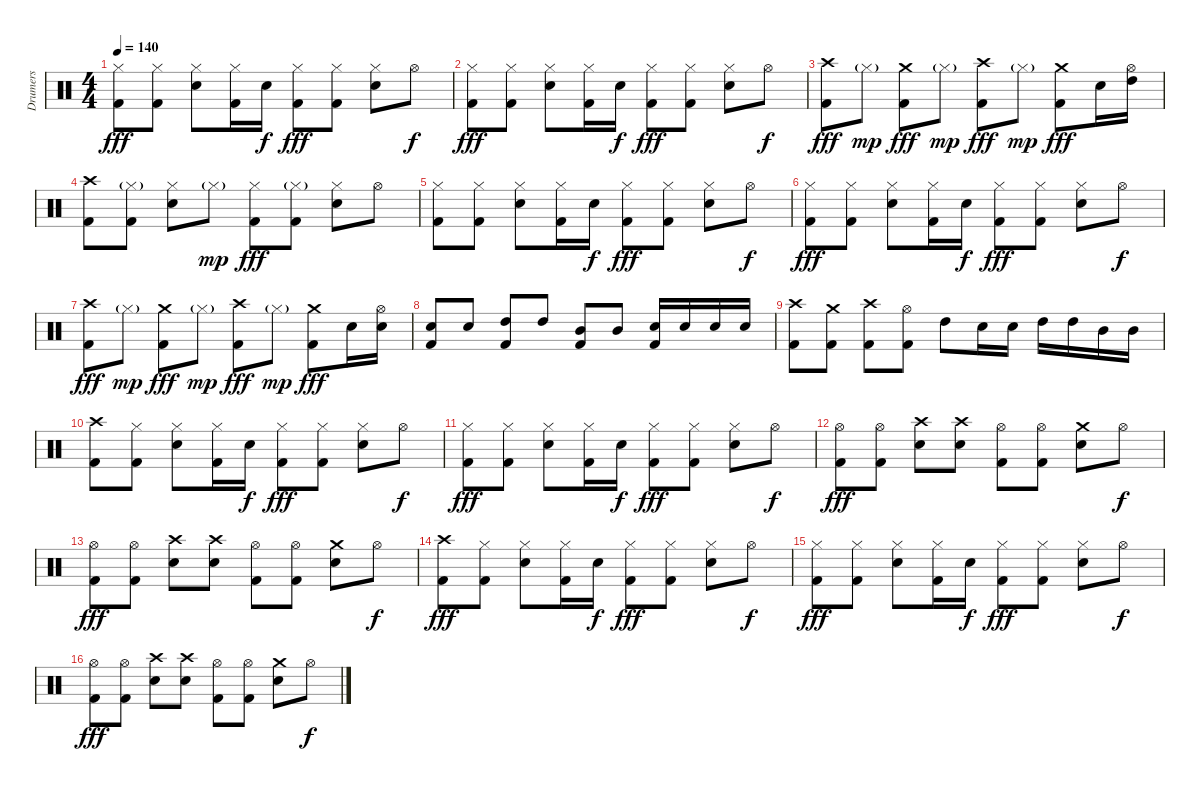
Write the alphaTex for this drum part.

\track ("Drumers" "Drumers") {instrument percussion}
\staff {score}
\articulation defaults
\ts (4 4)
\tempo 140
\clef neutral
\ks c
("Hi-Hat (closed)" "Kick (hit) 2").8{dy fff} ("Hi-Hat (closed)" "Kick (hit) 2").8 ("Hi-Hat (closed)" "Electric Snare (hit)").8 ("Hi-Hat (closed)" "Kick (hit) 2").16 "Electric Snare (hit)".16{dy f} ("Hi-Hat (closed)" "Kick (hit) 2").8{dy fff} ("Hi-Hat (closed)" "Kick (hit) 2").8 ("Hi-Hat (closed)" "Electric Snare (hit)").8 "Hi-Hat (open)".8{dy f} |
("Hi-Hat (closed)" "Kick (hit) 2").8{dy fff} ("Hi-Hat (closed)" "Kick (hit) 2").8 ("Hi-Hat (closed)" "Electric Snare (hit)").8 ("Hi-Hat (closed)" "Kick (hit) 2").16 "Electric Snare (hit)".16{dy f} ("Hi-Hat (closed)" "Kick (hit) 2").8{dy fff} ("Hi-Hat (closed)" "Kick (hit) 2").8 ("Hi-Hat (closed)" "Electric Snare (hit)").8 "Hi-Hat (open)".8{dy f} |
("Crash high (hit)" "Kick (hit) 2").8{dy fff} "Hi-Hat (closed)"{g}.8{dy mp} ("Crash medium (hit)" "Kick (hit) 2").8{dy fff} "Hi-Hat (closed)"{g}.8{dy mp} ("Crash high (hit)" "Kick (hit) 2").8{dy fff} "Hi-Hat (closed)"{g}.8{dy mp} ("Crash medium (hit)" "Kick (hit) 2").8{dy fff} "Electric Snare (hit)".16 ("Hi-Hat (open)" "High Tom (hit)").16 |
("Crash high (hit)" "Kick (hit) 2").8 ("Hi-Hat (closed)"{g} "Kick (hit) 2").8 ("Hi-Hat (closed)" "Electric Snare (hit)").8 "Hi-Hat (closed)"{g}.8{dy mp} ("Hi-Hat (closed)" "Kick (hit) 2").8{dy fff} ("Hi-Hat (closed)"{g} "Kick (hit) 2").8 ("Hi-Hat (closed)" "Electric Snare (hit)").8 "Hi-Hat (open)".8 |
("Hi-Hat (closed)" "Kick (hit) 2").8 ("Hi-Hat (closed)" "Kick (hit) 2").8 ("Hi-Hat (closed)" "Electric Snare (hit)").8 ("Hi-Hat (closed)" "Kick (hit) 2").16 "Electric Snare (hit)".16{dy f} ("Hi-Hat (closed)" "Kick (hit) 2").8{dy fff} ("Hi-Hat (closed)" "Kick (hit) 2").8 ("Hi-Hat (closed)" "Electric Snare (hit)").8 "Hi-Hat (open)".8{dy f} |
("Hi-Hat (closed)" "Kick (hit) 2").8{dy fff} ("Hi-Hat (closed)" "Kick (hit) 2").8 ("Hi-Hat (closed)" "Electric Snare (hit)").8 ("Hi-Hat (closed)" "Kick (hit) 2").16 "Electric Snare (hit)".16{dy f} ("Hi-Hat (closed)" "Kick (hit) 2").8{dy fff} ("Hi-Hat (closed)" "Kick (hit) 2").8 ("Hi-Hat (closed)" "Electric Snare (hit)").8 "Hi-Hat (open)".8{dy f} |
("Crash high (hit)" "Kick (hit) 2").8{dy fff} "Hi-Hat (closed)"{g}.8{dy mp} ("Crash medium (hit)" "Kick (hit) 2").8{dy fff} "Hi-Hat (closed)"{g}.8{dy mp} ("Crash high (hit)" "Kick (hit) 2").8{dy fff} "Hi-Hat (closed)"{g}.8{dy mp} ("Crash medium (hit)" "Kick (hit) 2").8{dy fff} "Electric Snare (hit)".16 ("Hi-Hat (open)" "Electric Snare (hit)").16 |
("Electric Snare (hit)" "Kick (hit) 2").8 "Electric Snare (hit)".8 ("High Tom (hit)" "Kick (hit) 2").8 "High Tom (hit)".8 ("Mid Tom (hit)" "Kick (hit) 2").8 "Mid Tom (hit)".8 ("Electric Snare (hit)" "Kick (hit) 2").16 "Electric Snare (hit)".16 "Electric Snare (hit)".16 "Electric Snare (hit)".16 |
("Crash high (hit)" "Kick (hit) 2").8 ("Crash medium (hit)" "Kick (hit) 2").8 ("Crash high (hit)" "Kick (hit) 2").8 ("Hi-Hat (open)" "Kick (hit) 2").8 "High Tom (hit)".8 "Electric Snare (hit)".16 "Electric Snare (hit)".16 "High Tom (hit)".16 "High Tom (hit)".16 "Mid Tom (hit)".16 "Mid Tom (hit)".16 |
("Crash high (hit)" "Kick (hit) 2").8 ("Hi-Hat (closed)" "Kick (hit) 2").8 ("Hi-Hat (closed)" "Electric Snare (hit)").8 ("Hi-Hat (closed)" "Kick (hit) 2").16 "Electric Snare (hit)".16{dy f} ("Hi-Hat (closed)" "Kick (hit) 2").8{dy fff} ("Hi-Hat (closed)" "Kick (hit) 2").8 ("Hi-Hat (closed)" "Electric Snare (hit)").8 "Hi-Hat (open)".8{dy f} |
("Hi-Hat (closed)" "Kick (hit) 2").8{dy fff} ("Hi-Hat (closed)" "Kick (hit) 2").8 ("Hi-Hat (closed)" "Electric Snare (hit)").8 ("Hi-Hat (closed)" "Kick (hit) 2").16 "Electric Snare (hit)".16{dy f} ("Hi-Hat (closed)" "Kick (hit) 2").8{dy fff} ("Hi-Hat (closed)" "Kick (hit) 2").8 ("Hi-Hat (closed)" "Electric Snare (hit)").8 "Hi-Hat (open)".8{dy f} |
("Hi-Hat (open)" "Kick (hit) 2").8{dy fff} ("Hi-Hat (open)" "Kick (hit) 2").8 ("Crash high (hit)" "Electric Snare (hit)").8 ("Crash high (hit)" "Electric Snare (hit)").8 ("Hi-Hat (open)" "Kick (hit) 2").8 ("Hi-Hat (open)" "Kick (hit) 2").8 ("Crash medium (hit)" "Electric Snare (hit)").8 "Hi-Hat (open)".8{dy f} |
("Hi-Hat (open)" "Kick (hit) 2").8{dy fff} ("Hi-Hat (open)" "Kick (hit) 2").8 ("Crash high (hit)" "Electric Snare (hit)").8 ("Crash high (hit)" "Electric Snare (hit)").8 ("Hi-Hat (open)" "Kick (hit) 2").8 ("Hi-Hat (open)" "Kick (hit) 2").8 ("Crash medium (hit)" "Electric Snare (hit)").8 "Hi-Hat (open)".8{dy f} |
("Crash high (hit)" "Kick (hit) 2").8{dy fff} ("Hi-Hat (closed)" "Kick (hit) 2").8 ("Hi-Hat (closed)" "Electric Snare (hit)").8 ("Hi-Hat (closed)" "Kick (hit) 2").16 "Electric Snare (hit)".16{dy f} ("Hi-Hat (closed)" "Kick (hit) 2").8{dy fff} ("Hi-Hat (closed)" "Kick (hit) 2").8 ("Hi-Hat (closed)" "Electric Snare (hit)").8 "Hi-Hat (open)".8{dy f} |
("Hi-Hat (closed)" "Kick (hit) 2").8{dy fff} ("Hi-Hat (closed)" "Kick (hit) 2").8 ("Hi-Hat (closed)" "Electric Snare (hit)").8 ("Hi-Hat (closed)" "Kick (hit) 2").16 "Electric Snare (hit)".16{dy f} ("Hi-Hat (closed)" "Kick (hit) 2").8{dy fff} ("Hi-Hat (closed)" "Kick (hit) 2").8 ("Hi-Hat (closed)" "Electric Snare (hit)").8 "Hi-Hat (open)".8{dy f} |
("Hi-Hat (open)" "Kick (hit) 2").8{dy fff} ("Hi-Hat (open)" "Kick (hit) 2").8 ("Crash high (hit)" "Electric Snare (hit)").8 ("Crash high (hit)" "Electric Snare (hit)").8 ("Hi-Hat (open)" "Kick (hit) 2").8 ("Hi-Hat (open)" "Kick (hit) 2").8 ("Crash medium (hit)" "Electric Snare (hit)").8 "Hi-Hat (open)".8{dy f}
